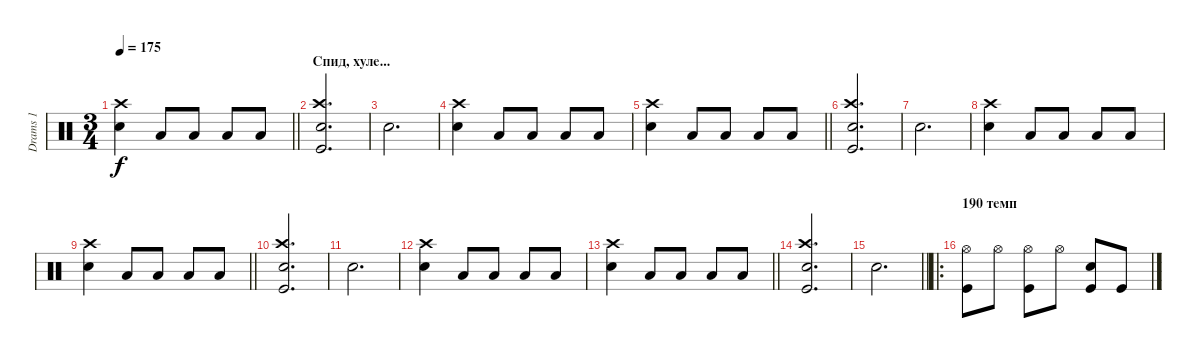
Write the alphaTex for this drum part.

\track ("Drams 1" "Drams 1") {instrument percussion}
\staff {score}
\articulation defaults
\ts (3 4)
\tempo 175
\clef neutral
\barLineRight lightlight
\ks c
("Snare (hit) 2" "Crash high (hit)").4{dy f} "Low Tom (hit)".8 "Low Tom (hit)".8 "Low Tom (hit)".8 "Low Tom (hit)".8 |
\section ("" "Спид, хуле...")
("Snare (hit) 2" "Crash high (hit)" "Kick (hit)").2{d} |
"Snare (hit) 2".2{d} |
("Snare (hit) 2" "Crash high (hit)").4 "Low Tom (hit)".8 "Low Tom (hit)".8 "Low Tom (hit)".8 "Low Tom (hit)".8 |
\barLineRight lightlight
("Snare (hit) 2" "Crash high (hit)").4 "Low Tom (hit)".8 "Low Tom (hit)".8 "Low Tom (hit)".8 "Low Tom (hit)".8 |
("Snare (hit) 2" "Crash high (hit)" "Kick (hit)").2{d} |
"Snare (hit) 2".2{d} |
("Snare (hit) 2" "Crash high (hit)").4 "Low Tom (hit)".8 "Low Tom (hit)".8 "Low Tom (hit)".8 "Low Tom (hit)".8 |
\barLineRight lightlight
("Snare (hit) 2" "Crash high (hit)").4 "Low Tom (hit)".8 "Low Tom (hit)".8 "Low Tom (hit)".8 "Low Tom (hit)".8 |
("Snare (hit) 2" "Crash high (hit)" "Kick (hit)").2{d} |
"Snare (hit) 2".2{d} |
("Snare (hit) 2" "Crash high (hit)").4 "Low Tom (hit)".8 "Low Tom (hit)".8 "Low Tom (hit)".8 "Low Tom (hit)".8 |
\barLineRight lightlight
("Snare (hit) 2" "Crash high (hit)").4 "Low Tom (hit)".8 "Low Tom (hit)".8 "Low Tom (hit)".8 "Low Tom (hit)".8 |
("Snare (hit) 2" "Crash high (hit)" "Kick (hit)").2{d} |
\barLineRight lightlight "Snare (hit) 2".2{d}
|
\ro
\section ("" "190 темп")
("Hi-Hat (open)" "Kick (hit)").8 "Hi-Hat (open)".8 ("Hi-Hat (open)" "Kick (hit)").8 "Hi-Hat (open)".8 ("Snare (hit) 2" "Kick (hit)").8 "Kick (hit)".8
